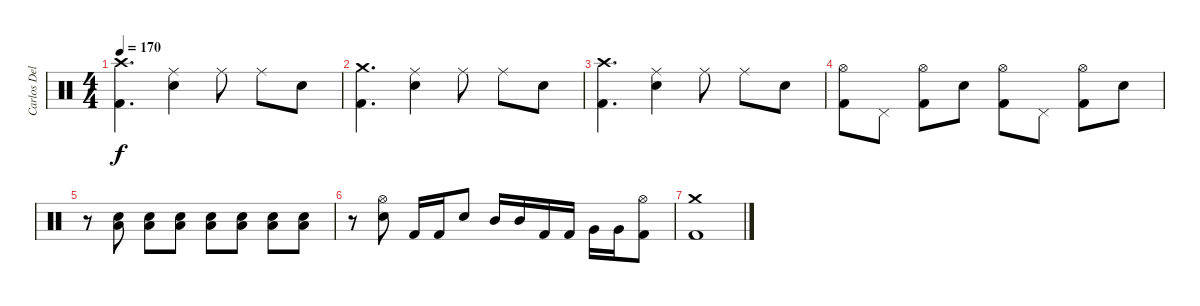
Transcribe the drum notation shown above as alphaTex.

\track ("Carlos Delgado" "Carlos Del") {instrument percussion}
\staff {score}
\articulation defaults
\ts (4 4)
\tempo 170
\clef neutral
\ks c
("Crash high (hit)" "Kick (hit) 2").4{d dy f} ("Ride (middle)" "Electric Snare (hit)").4 "Ride (middle)".8 "Ride (middle)".8 "Electric Snare (hit)".8 |
("Crash medium (hit)" "Kick (hit) 2").4{d} ("Ride (middle)" "Electric Snare (hit)").4 "Ride (middle)".8 "Ride (middle)".8 "Electric Snare (hit)".8 |
("Crash high (hit)" "Kick (hit) 2").4{d} ("Ride (middle)" "Electric Snare (hit)").4 "Ride (middle)".8 "Ride (middle)".8 "Electric Snare (hit)".8 |
("Hi-Hat (open)" "Kick (hit) 2").8 "Pedal Hi-Hat (hit)".8 ("Hi-Hat (open)" "Kick (hit) 2").8 "Electric Snare (hit)".8 ("Hi-Hat (open)" "Kick (hit) 2").8 "Pedal Hi-Hat (hit)".8 ("Hi-Hat (open)" "Kick (hit) 2").8 "Electric Snare (hit)".8 |
r.8{volume 6} ("Electric Snare (hit)" "Low Floor Tom (hit)").8{volume 16} ("Electric Snare (hit)" "Low Floor Tom (hit)").8 ("Electric Snare (hit)" "Low Floor Tom (hit)").8 ("Electric Snare (hit)" "Low Floor Tom (hit)").8 ("Electric Snare (hit)" "Low Floor Tom (hit)").8 ("Electric Snare (hit)" "Low Floor Tom (hit)").8 ("Electric Snare (hit)" "Low Floor Tom (hit)").8 |
r.8 ("Hi-Hat (open)" "Electric Snare (hit)").8 "Kick (hit) 2".16 "Kick (hit) 2".16 "Electric Snare (hit)".8 "Mid Tom (hit)".16 "Mid Tom (hit)".16 "Kick (hit) 2".16 "Kick (hit) 2".16 "Very Low Tom (hit)".16 "Very Low Tom (hit)".16 ("Hi-Hat (open)" "Kick (hit) 2").8 |
("Crash medium (hit)" "Kick (hit) 2").1
